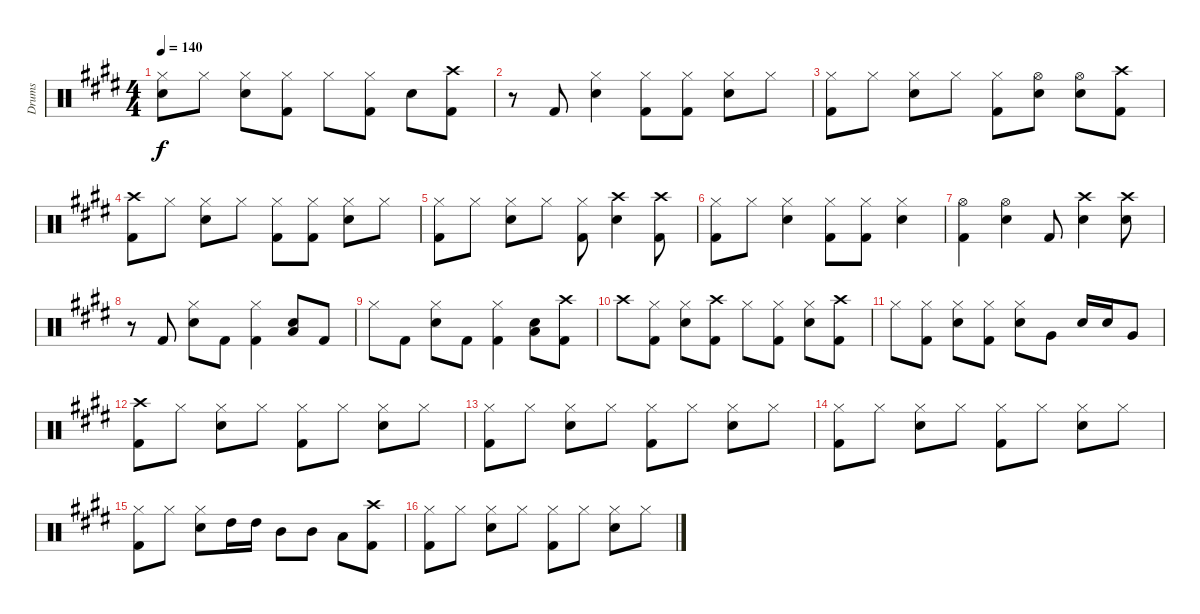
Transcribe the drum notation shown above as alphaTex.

\track ("Drums" "Drums") {instrument percussion}
\staff {score}
\articulation defaults
\ts (4 4)
\tempo 140
\clef neutral
\ks e
("Hi-Hat (closed)" "Electric Snare (hit)").8{dy f} "Hi-Hat (closed)".8 ("Hi-Hat (closed)" "Electric Snare (hit)").8 ("Hi-Hat (closed)" "Kick (hit) 2").8 "Hi-Hat (closed)".8 ("Hi-Hat (closed)" "Kick (hit) 2").8 "Electric Snare (hit)".8 ("Crash high (hit)" "Kick (hit) 2").8 |
r.8 "Kick (hit) 2".8 ("Hi-Hat (closed)" "Electric Snare (hit)").4 ("Hi-Hat (closed)" "Kick (hit) 2").8 ("Hi-Hat (closed)" "Kick (hit) 2").8 ("Hi-Hat (closed)" "Electric Snare (hit)").8 "Hi-Hat (closed)".8 |
("Hi-Hat (closed)" "Kick (hit) 2").8 "Hi-Hat (closed)".8 ("Hi-Hat (closed)" "Electric Snare (hit)").8 "Hi-Hat (closed)".8 ("Hi-Hat (closed)" "Kick (hit) 2").8 ("Hi-Hat (open)" "Electric Snare (hit)").8 ("Hi-Hat (open)" "Electric Snare (hit)").8 ("Crash high (hit)" "Kick (hit) 2").8 |
("Crash high (hit)" "Kick (hit) 2").8 "Hi-Hat (closed)".8 ("Hi-Hat (closed)" "Electric Snare (hit)").8 "Hi-Hat (closed)".8 ("Hi-Hat (closed)" "Kick (hit) 2").8 ("Hi-Hat (closed)" "Kick (hit) 2").8 ("Hi-Hat (closed)" "Electric Snare (hit)").8 "Hi-Hat (closed)".8 |
("Hi-Hat (closed)" "Kick (hit) 2").8 "Hi-Hat (closed)".8 ("Hi-Hat (closed)" "Electric Snare (hit)").8 "Hi-Hat (closed)".8 ("Hi-Hat (closed)" "Kick (hit) 2").8 ("Crash high (hit)" "Electric Snare (hit)").4 ("Crash high (hit)" "Kick (hit) 2").8 |
("Hi-Hat (closed)" "Kick (hit) 2").8 "Hi-Hat (closed)".8 ("Hi-Hat (closed)" "Electric Snare (hit)").4 ("Hi-Hat (closed)" "Kick (hit) 2").8 ("Hi-Hat (closed)" "Kick (hit) 2").8 ("Hi-Hat (closed)" "Electric Snare (hit)").4 |
("Hi-Hat (open)" "Kick (hit) 2").4 ("Hi-Hat (open)" "Electric Snare (hit)").4 "Kick (hit) 2".8 ("Crash high (hit)" "Electric Snare (hit)").4 ("Crash high (hit)" "Electric Snare (hit)").8 |
r.8 "Kick (hit) 2".8 ("Hi-Hat (closed)" "Electric Snare (hit)").8 "Kick (hit) 2".8 ("Hi-Hat (closed)" "Kick (hit) 2").4 ("Electric Snare (hit)" "Low Tom (hit)").8 "Kick (hit) 2".8 |
"Hi-Hat (closed)".8 "Kick (hit) 2".8 ("Hi-Hat (closed)" "Electric Snare (hit)").8 "Kick (hit) 2".8 ("Hi-Hat (closed)" "Kick (hit) 2").4 ("Electric Snare (hit)" "Low Tom (hit)").8 ("Crash high (hit)" "Kick (hit) 2").8 |
"Crash high (hit)".8 ("Hi-Hat (closed)" "Kick (hit) 2").8 ("Hi-Hat (closed)" "Electric Snare (hit)").8 ("Crash high (hit)" "Kick (hit) 2").8 "Hi-Hat (closed)".8 ("Hi-Hat (closed)" "Kick (hit) 2").8 ("Hi-Hat (closed)" "Electric Snare (hit)").8 ("Crash high (hit)" "Kick (hit) 2").8 |
"Hi-Hat (closed)".8 ("Hi-Hat (closed)" "Kick (hit) 2").8 ("Hi-Hat (closed)" "Electric Snare (hit)").8 ("Hi-Hat (closed)" "Kick (hit) 2").8 ("Hi-Hat (closed)" "Electric Snare (hit)").8 "Very Low Tom (hit)".8 "Electric Snare (hit)".16 "Electric Snare (hit)".16 "Very Low Tom (hit)".8 |
("Crash high (hit)" "Kick (hit) 2").8 "Hi-Hat (closed)".8 ("Hi-Hat (closed)" "Electric Snare (hit)").8 "Hi-Hat (closed)".8 ("Hi-Hat (closed)" "Kick (hit) 2").8 "Hi-Hat (closed)".8 ("Hi-Hat (closed)" "Electric Snare (hit)").8 "Hi-Hat (closed)".8 |
("Hi-Hat (closed)" "Kick (hit) 2").8 "Hi-Hat (closed)".8 ("Hi-Hat (closed)" "Electric Snare (hit)").8 "Hi-Hat (closed)".8 ("Hi-Hat (closed)" "Kick (hit) 2").8 "Hi-Hat (closed)".8 ("Hi-Hat (closed)" "Electric Snare (hit)").8 "Hi-Hat (closed)".8 |
("Hi-Hat (closed)" "Kick (hit) 2").8 "Hi-Hat (closed)".8 ("Hi-Hat (closed)" "Electric Snare (hit)").8 "Hi-Hat (closed)".8 ("Hi-Hat (closed)" "Kick (hit) 2").8 "Hi-Hat (closed)".8 ("Hi-Hat (closed)" "Electric Snare (hit)").8 "Hi-Hat (closed)".8 |
("Hi-Hat (closed)" "Kick (hit) 2").8 "Hi-Hat (closed)".8 ("Hi-Hat (closed)" "Electric Snare (hit)").8 "High Tom (hit)".16 "High Tom (hit)".16 "Mid Tom (hit)".8 "Mid Tom (hit)".8 "Low Tom (hit)".8 ("Crash high (hit)" "Kick (hit) 2").8 |
("Hi-Hat (closed)" "Kick (hit) 2").8 "Hi-Hat (closed)".8 ("Hi-Hat (closed)" "Electric Snare (hit)").8 "Hi-Hat (closed)".8 ("Hi-Hat (closed)" "Kick (hit) 2").8 "Hi-Hat (closed)".8 ("Hi-Hat (closed)" "Electric Snare (hit)").8 "Hi-Hat (closed)".8
